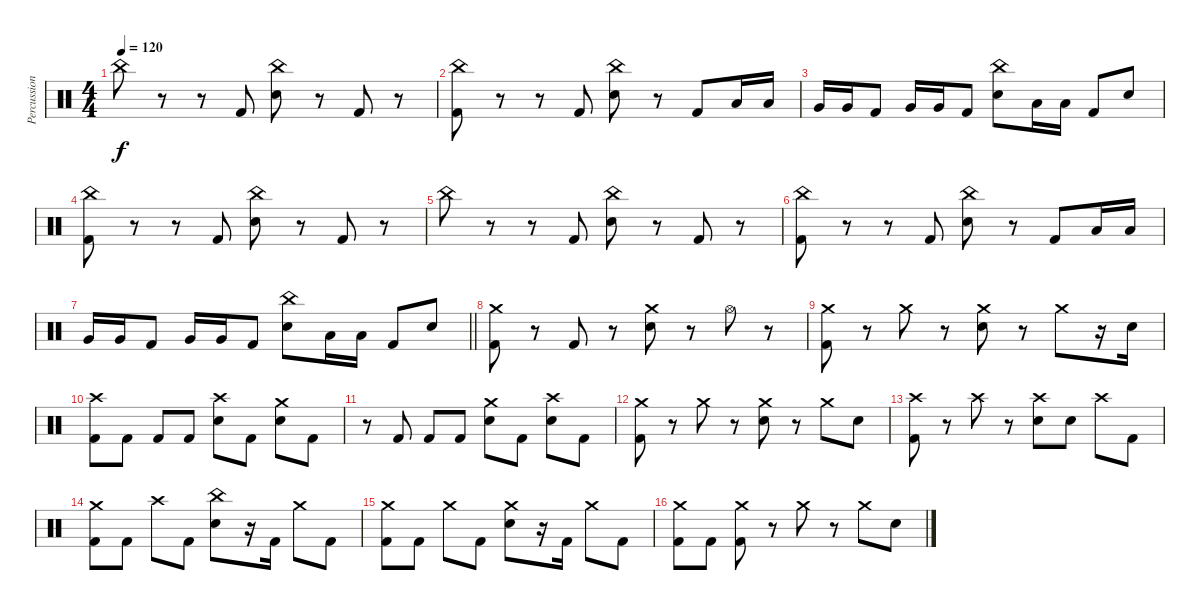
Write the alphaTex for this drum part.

\track ("Percussion" "Percussion") {instrument percussion}
\staff {score}
\articulation defaults
\ts (4 4)
\tempo 120
\clef neutral
\ks c "China (hit)".8{dy f}
r.8 r.8 "Kick (hit) 2".8 ("China (hit)" "Electric Snare (hit)").8 r.8 "Kick (hit) 2".8 r.8 |
("China (hit)" "Kick (hit) 2").8 r.8 r.8 "Kick (hit) 2".8 ("China (hit)" "Electric Snare (hit)").8 r.8 "Kick (hit) 2".8 "Low Tom (hit)".16 "Low Tom (hit)".16 |
"Very Low Tom (hit)".16 "Very Low Tom (hit)".16 "Kick (hit) 2".8 "Very Low Tom (hit)".16 "Very Low Tom (hit)".16 "Kick (hit) 2".8 ("China (hit)" "Electric Snare (hit)").8 "Low Floor Tom (hit)".16 "Low Floor Tom (hit)".16 "Kick (hit) 2".8 "Electric Snare (hit)".8 |
("China (hit)" "Kick (hit) 2").8 r.8 r.8 "Kick (hit) 2".8 ("China (hit)" "Electric Snare (hit)").8 r.8 "Kick (hit) 2".8 r.8 |
"China (hit)".8 r.8 r.8 "Kick (hit) 2".8 ("China (hit)" "Electric Snare (hit)").8 r.8 "Kick (hit) 2".8 r.8 |
("China (hit)" "Kick (hit) 2").8 r.8 r.8 "Kick (hit) 2".8 ("China (hit)" "Electric Snare (hit)").8 r.8 "Kick (hit) 2".8 "Low Tom (hit)".16 "Low Tom (hit)".16 |
\barLineRight lightlight "Very Low Tom (hit)".16 "Very Low Tom (hit)".16 "Kick (hit) 2".8 "Very Low Tom (hit)".16 "Very Low Tom (hit)".16 "Kick (hit) 2".8
("China (hit)" "Electric Snare (hit)").8 "Low Floor Tom (hit)".16 "Low Floor Tom (hit)".16 "Kick (hit) 2".8 "Electric Snare (hit)".8 |
\section ("" "")
("Crash medium (hit)" "Kick (hit) 2").8 r.8 "Kick (hit) 2".8 r.8 ("Crash medium (hit)" "Electric Snare (hit)").8 r.8 "Hi-Hat (open)".8 r.8 |
("Crash medium (hit)" "Kick (hit) 2").8 r.8 "Crash medium (hit)".8 r.8 ("Crash medium (hit)" "Electric Snare (hit)").8 r.8 "Crash medium (hit)".8 r.16 "Electric Snare (hit)".16 |
("Crash high (hit)" "Kick (hit) 2").8 "Kick (hit) 2".8 "Kick (hit) 2".8 "Kick (hit) 2".8 ("Crash high (hit)" "Electric Snare (hit)").8 "Kick (hit) 2".8 ("Crash medium (hit)" "Electric Snare (hit)").8 "Kick (hit) 2".8 |
r.8 "Kick (hit) 2".8 "Kick (hit) 2".8 "Kick (hit) 2".8 ("Crash medium (hit)" "Electric Snare (hit)").8 "Kick (hit) 2".8 ("Crash high (hit)" "Electric Snare (hit)").8 "Kick (hit) 2".8 |
("Crash medium (hit)" "Kick (hit) 2").8 r.8 "Crash medium (hit)".8 r.8 ("Crash medium (hit)" "Electric Snare (hit)").8 r.8 "Crash medium (hit)".8 "Electric Snare (hit)".8 |
("Crash high (hit)" "Kick (hit) 2").8 r.8 "Crash high (hit)".8 r.8 ("Crash high (hit)" "Electric Snare (hit)").8 "Electric Snare (hit)".8 "Crash high (hit)".8 "Kick (hit) 2".8 |
("Crash medium (hit)" "Kick (hit) 2").8 "Kick (hit) 2".8 "Crash high (hit)".8 "Kick (hit) 2".8 ("China (hit)" "Electric Snare (hit)").8 r.16 "Kick (hit) 2".16 "Crash medium (hit)".8 "Kick (hit) 2".8 |
("Crash medium (hit)" "Kick (hit) 2").8 "Kick (hit) 2".8 "Crash medium (hit)".8 "Kick (hit) 2".8 ("Crash medium (hit)" "Electric Snare (hit)").8 r.16 "Kick (hit) 2".16 "Crash medium (hit)".8 "Kick (hit) 2".8 |
("Crash medium (hit)" "Kick (hit) 2").8 "Kick (hit) 2".8 ("Crash medium (hit)" "Kick (hit) 2").8 r.8 "Crash medium (hit)".8 r.8 "Crash medium (hit)".8 "Electric Snare (hit)".8
